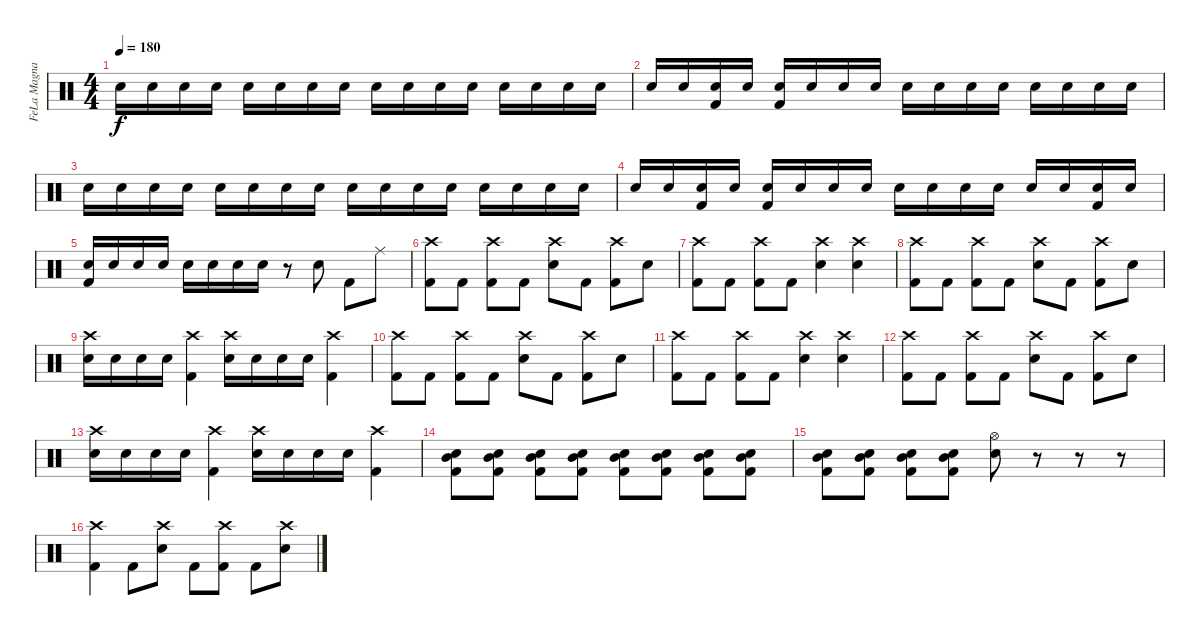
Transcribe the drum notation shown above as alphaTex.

\track ("FeLa Magnani" "FeLa Magna") {instrument percussion}
\staff {score}
\articulation defaults
\ts (4 4)
\tempo 180
\clef neutral
\ks c "Electric Snare (hit)".16{dy f} "Electric Snare (hit)".16 "Electric Snare (hit)".16 "Electric Snare (hit)".16 "Electric Snare (hit)".16 "Electric Snare (hit)".16 "Electric Snare (hit)".16 "Electric Snare (hit)".16 "Electric Snare (hit)".16 "Electric Snare (hit)".16 "Electric Snare (hit)".16 "Electric Snare (hit)".16 "Electric Snare (hit)".16 "Electric Snare (hit)".16 "Electric Snare (hit)".16 "Electric Snare (hit)".16
|
"Electric Snare (hit)".16 "Electric Snare (hit)".16 ("Electric Snare (hit)" "Kick (hit) 2").16 "Electric Snare (hit)".16 ("Electric Snare (hit)" "Kick (hit) 2").16 "Electric Snare (hit)".16 "Electric Snare (hit)".16 "Electric Snare (hit)".16 "Electric Snare (hit)".16 "Electric Snare (hit)".16 "Electric Snare (hit)".16 "Electric Snare (hit)".16 "Electric Snare (hit)".16 "Electric Snare (hit)".16 "Electric Snare (hit)".16 "Electric Snare (hit)".16 |
"Electric Snare (hit)".16 "Electric Snare (hit)".16 "Electric Snare (hit)".16 "Electric Snare (hit)".16 "Electric Snare (hit)".16 "Electric Snare (hit)".16 "Electric Snare (hit)".16 "Electric Snare (hit)".16 "Electric Snare (hit)".16 "Electric Snare (hit)".16 "Electric Snare (hit)".16 "Electric Snare (hit)".16 "Electric Snare (hit)".16 "Electric Snare (hit)".16 "Electric Snare (hit)".16 "Electric Snare (hit)".16 |
"Electric Snare (hit)".16 "Electric Snare (hit)".16 ("Electric Snare (hit)" "Kick (hit) 2").16 "Electric Snare (hit)".16 ("Electric Snare (hit)" "Kick (hit) 2").16 "Electric Snare (hit)".16 "Electric Snare (hit)".16 "Electric Snare (hit)".16 "Electric Snare (hit)".16 "Electric Snare (hit)".16 "Electric Snare (hit)".16 "Electric Snare (hit)".16 "Electric Snare (hit)".16 "Electric Snare (hit)".16 ("Electric Snare (hit)" "Kick (hit) 2").16 "Electric Snare (hit)".16 |
("Electric Snare (hit)" "Kick (hit) 2").16 "Electric Snare (hit)".16 "Electric Snare (hit)".16 "Electric Snare (hit)".16 "Electric Snare (hit)".16 "Electric Snare (hit)".16 "Electric Snare (hit)".16 "Electric Snare (hit)".16 r.8 "Electric Snare (hit)".8 "Kick (hit) 2".8 "Ride (middle)".8 |
("Kick (hit) 2" "Crash high (hit)").8 "Kick (hit) 2".8 ("Kick (hit) 2" "Crash high (hit)").8 "Kick (hit) 2".8 ("Electric Snare (hit)" "Crash high (hit)").8 "Kick (hit) 2".8 ("Kick (hit) 2" "Crash high (hit)").8 "Electric Snare (hit)".8 |
("Kick (hit) 2" "Crash high (hit)").8 "Kick (hit) 2".8 ("Kick (hit) 2" "Crash high (hit)").8 "Kick (hit) 2".8 ("Electric Snare (hit)" "Crash high (hit)").4 ("Electric Snare (hit)" "Crash high (hit)").4 |
("Kick (hit) 2" "Crash high (hit)").8 "Kick (hit) 2".8 ("Kick (hit) 2" "Crash high (hit)").8 "Kick (hit) 2".8 ("Electric Snare (hit)" "Crash high (hit)").8 "Kick (hit) 2".8 ("Kick (hit) 2" "Crash high (hit)").8 "Electric Snare (hit)".8 |
("Crash high (hit)" "Electric Snare (hit)").16 "Electric Snare (hit)".16 "Electric Snare (hit)".16 "Electric Snare (hit)".16 ("Crash high (hit)" "Kick (hit) 2").4 ("Crash high (hit)" "Electric Snare (hit)").16 "Electric Snare (hit)".16 "Electric Snare (hit)".16 "Electric Snare (hit)".16 ("Crash high (hit)" "Kick (hit) 2").4 |
("Kick (hit) 2" "Crash high (hit)").8 "Kick (hit) 2".8 ("Kick (hit) 2" "Crash high (hit)").8 "Kick (hit) 2".8 ("Electric Snare (hit)" "Crash high (hit)").8 "Kick (hit) 2".8 ("Kick (hit) 2" "Crash high (hit)").8 "Electric Snare (hit)".8 |
("Kick (hit) 2" "Crash high (hit)").8 "Kick (hit) 2".8 ("Kick (hit) 2" "Crash high (hit)").8 "Kick (hit) 2".8 ("Electric Snare (hit)" "Crash high (hit)").4 ("Electric Snare (hit)" "Crash high (hit)").4 |
("Kick (hit) 2" "Crash high (hit)").8 "Kick (hit) 2".8 ("Kick (hit) 2" "Crash high (hit)").8 "Kick (hit) 2".8 ("Electric Snare (hit)" "Crash high (hit)").8 "Kick (hit) 2".8 ("Kick (hit) 2" "Crash high (hit)").8 "Electric Snare (hit)".8 |
("Crash high (hit)" "Electric Snare (hit)").16 "Electric Snare (hit)".16 "Electric Snare (hit)".16 "Electric Snare (hit)".16 ("Crash high (hit)" "Kick (hit) 2").4 ("Crash high (hit)" "Electric Snare (hit)").16 "Electric Snare (hit)".16 "Electric Snare (hit)".16 "Electric Snare (hit)".16 ("Crash high (hit)" "Kick (hit) 2").4 |
("Mid Tom (hit)" "Electric Snare (hit)" "Kick (hit) 2").8 ("Mid Tom (hit)" "Electric Snare (hit)" "Kick (hit) 2").8 ("Mid Tom (hit)" "Electric Snare (hit)" "Kick (hit) 2").8 ("Mid Tom (hit)" "Electric Snare (hit)" "Kick (hit) 2").8 ("Mid Tom (hit)" "Electric Snare (hit)" "Kick (hit) 2").8 ("Mid Tom (hit)" "Electric Snare (hit)" "Kick (hit) 2").8 ("Mid Tom (hit)" "Electric Snare (hit)" "Kick (hit) 2").8 ("Mid Tom (hit)" "Electric Snare (hit)" "Kick (hit) 2").8 |
("Mid Tom (hit)" "Electric Snare (hit)" "Kick (hit) 2").8 ("Mid Tom (hit)" "Electric Snare (hit)" "Kick (hit) 2").8 ("Mid Tom (hit)" "Electric Snare (hit)" "Kick (hit) 2").8 ("Mid Tom (hit)" "Electric Snare (hit)" "Kick (hit) 2").8 ("Hi-Hat (open)" "Electric Snare (hit)").8 r.8 r.8 r.8 |
("Crash high (hit)" "Kick (hit) 2").4 "Kick (hit) 2".8 ("Crash high (hit)" "Electric Snare (hit)").8 "Kick (hit) 2".8 ("Crash high (hit)" "Kick (hit) 2").8 "Kick (hit) 2".8 ("Crash high (hit)" "Electric Snare (hit)").8
